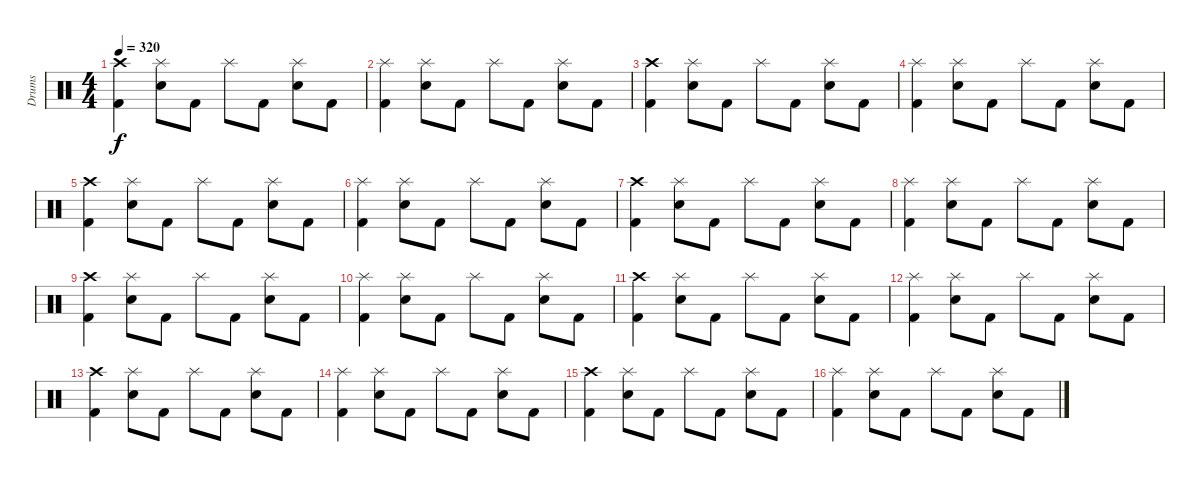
\track ("Drums" "Drums") {instrument percussion}
\staff {score}
\articulation defaults
\ts (4 4)
\tempo 320
\clef neutral
\ks c
("Crash high (hit)" "Kick (hit) 2").4{dy f} ("Splash (hit)" "Electric Snare (hit)").8 "Kick (hit) 2".8 "Splash (hit)".8 "Kick (hit) 2".8 ("Splash (hit)" "Electric Snare (hit)").8 "Kick (hit) 2".8 |
("Splash (hit)" "Kick (hit) 2").4 ("Splash (hit)" "Electric Snare (hit)").8 "Kick (hit) 2".8 "Splash (hit)".8 "Kick (hit) 2".8 ("Splash (hit)" "Electric Snare (hit)").8 "Kick (hit) 2".8 |
("Crash high (hit)" "Kick (hit) 2").4 ("Splash (hit)" "Electric Snare (hit)").8 "Kick (hit) 2".8 "Splash (hit)".8 "Kick (hit) 2".8 ("Splash (hit)" "Electric Snare (hit)").8 "Kick (hit) 2".8 |
("Splash (hit)" "Kick (hit) 2").4 ("Splash (hit)" "Electric Snare (hit)").8 "Kick (hit) 2".8 "Splash (hit)".8 "Kick (hit) 2".8 ("Splash (hit)" "Electric Snare (hit)").8 "Kick (hit) 2".8 |
("Crash high (hit)" "Kick (hit) 2").4 ("Splash (hit)" "Electric Snare (hit)").8 "Kick (hit) 2".8 "Splash (hit)".8 "Kick (hit) 2".8 ("Splash (hit)" "Electric Snare (hit)").8 "Kick (hit) 2".8 |
("Splash (hit)" "Kick (hit) 2").4 ("Splash (hit)" "Electric Snare (hit)").8 "Kick (hit) 2".8 "Splash (hit)".8 "Kick (hit) 2".8 ("Splash (hit)" "Electric Snare (hit)").8 "Kick (hit) 2".8 |
("Crash high (hit)" "Kick (hit) 2").4 ("Splash (hit)" "Electric Snare (hit)").8 "Kick (hit) 2".8 "Splash (hit)".8 "Kick (hit) 2".8 ("Splash (hit)" "Electric Snare (hit)").8 "Kick (hit) 2".8 |
("Splash (hit)" "Kick (hit) 2").4 ("Splash (hit)" "Electric Snare (hit)").8 "Kick (hit) 2".8 "Splash (hit)".8 "Kick (hit) 2".8 ("Splash (hit)" "Electric Snare (hit)").8 "Kick (hit) 2".8 |
("Crash high (hit)" "Kick (hit) 2").4 ("Splash (hit)" "Electric Snare (hit)").8 "Kick (hit) 2".8 "Splash (hit)".8 "Kick (hit) 2".8 ("Splash (hit)" "Electric Snare (hit)").8 "Kick (hit) 2".8 |
("Splash (hit)" "Kick (hit) 2").4 ("Splash (hit)" "Electric Snare (hit)").8 "Kick (hit) 2".8 "Splash (hit)".8 "Kick (hit) 2".8 ("Splash (hit)" "Electric Snare (hit)").8 "Kick (hit) 2".8 |
("Crash high (hit)" "Kick (hit) 2").4 ("Splash (hit)" "Electric Snare (hit)").8 "Kick (hit) 2".8 "Splash (hit)".8 "Kick (hit) 2".8 ("Splash (hit)" "Electric Snare (hit)").8 "Kick (hit) 2".8 |
("Splash (hit)" "Kick (hit) 2").4 ("Splash (hit)" "Electric Snare (hit)").8 "Kick (hit) 2".8 "Splash (hit)".8 "Kick (hit) 2".8 ("Splash (hit)" "Electric Snare (hit)").8 "Kick (hit) 2".8 |
("Crash high (hit)" "Kick (hit) 2").4 ("Splash (hit)" "Electric Snare (hit)").8 "Kick (hit) 2".8 "Splash (hit)".8 "Kick (hit) 2".8 ("Splash (hit)" "Electric Snare (hit)").8 "Kick (hit) 2".8 |
("Splash (hit)" "Kick (hit) 2").4 ("Splash (hit)" "Electric Snare (hit)").8 "Kick (hit) 2".8 "Splash (hit)".8 "Kick (hit) 2".8 ("Splash (hit)" "Electric Snare (hit)").8 "Kick (hit) 2".8 |
("Crash high (hit)" "Kick (hit) 2").4 ("Splash (hit)" "Electric Snare (hit)").8 "Kick (hit) 2".8 "Splash (hit)".8 "Kick (hit) 2".8 ("Splash (hit)" "Electric Snare (hit)").8 "Kick (hit) 2".8 |
("Splash (hit)" "Kick (hit) 2").4 ("Splash (hit)" "Electric Snare (hit)").8 "Kick (hit) 2".8 "Splash (hit)".8 "Kick (hit) 2".8 ("Splash (hit)" "Electric Snare (hit)").8 "Kick (hit) 2".8
